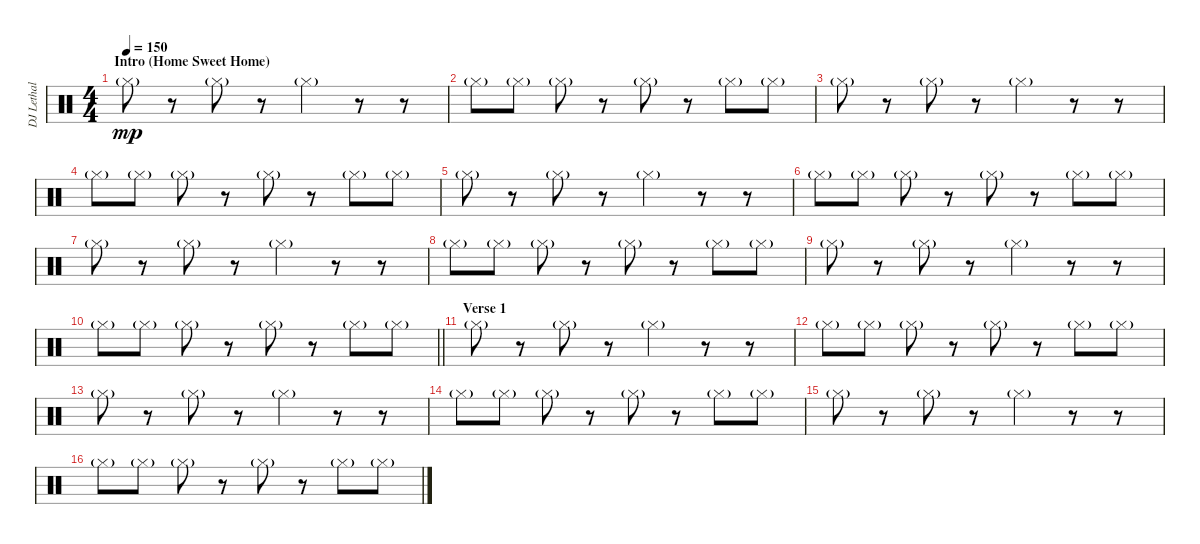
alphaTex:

\track ("DJ Lethal (Beats 2)" "DJ Lethal ") {instrument percussion}
\staff {score}
\articulation defaults
\ts (4 4)
\section ("" "Intro (Home Sweet Home)")
\tempo 150
\clef neutral
\ks c "Hi-Hat (closed)"{g}.8{dy mp}
r.8 "Hi-Hat (closed)"{g}.8 r.8 "Hi-Hat (closed)"{g}.4 r.8 r.8 |
"Hi-Hat (closed)"{g}.8 "Hi-Hat (closed)"{g}.8 "Hi-Hat (closed)"{g}.8 r.8 "Hi-Hat (closed)"{g}.8 r.8 "Hi-Hat (closed)"{g}.8 "Hi-Hat (closed)"{g}.8 |
"Hi-Hat (closed)"{g}.8 r.8 "Hi-Hat (closed)"{g}.8 r.8 "Hi-Hat (closed)"{g}.4 r.8 r.8 |
"Hi-Hat (closed)"{g}.8 "Hi-Hat (closed)"{g}.8 "Hi-Hat (closed)"{g}.8 r.8 "Hi-Hat (closed)"{g}.8 r.8 "Hi-Hat (closed)"{g}.8 "Hi-Hat (closed)"{g}.8 |
"Hi-Hat (closed)"{g}.8 r.8 "Hi-Hat (closed)"{g}.8 r.8 "Hi-Hat (closed)"{g}.4 r.8 r.8 |
"Hi-Hat (closed)"{g}.8 "Hi-Hat (closed)"{g}.8 "Hi-Hat (closed)"{g}.8 r.8 "Hi-Hat (closed)"{g}.8 r.8 "Hi-Hat (closed)"{g}.8 "Hi-Hat (closed)"{g}.8 |
"Hi-Hat (closed)"{g}.8 r.8 "Hi-Hat (closed)"{g}.8 r.8 "Hi-Hat (closed)"{g}.4 r.8 r.8 |
"Hi-Hat (closed)"{g}.8 "Hi-Hat (closed)"{g}.8 "Hi-Hat (closed)"{g}.8 r.8 "Hi-Hat (closed)"{g}.8 r.8 "Hi-Hat (closed)"{g}.8 "Hi-Hat (closed)"{g}.8 |
"Hi-Hat (closed)"{g}.8 r.8 "Hi-Hat (closed)"{g}.8 r.8 "Hi-Hat (closed)"{g}.4 r.8 r.8 |
\barLineRight lightlight "Hi-Hat (closed)"{g}.8 "Hi-Hat (closed)"{g}.8 "Hi-Hat (closed)"{g}.8
r.8 "Hi-Hat (closed)"{g}.8 r.8 "Hi-Hat (closed)"{g}.8 "Hi-Hat (closed)"{g}.8 |
\section ("" "Verse 1")
"Hi-Hat (closed)"{g}.8 r.8 "Hi-Hat (closed)"{g}.8 r.8 "Hi-Hat (closed)"{g}.4 r.8 r.8 |
"Hi-Hat (closed)"{g}.8 "Hi-Hat (closed)"{g}.8 "Hi-Hat (closed)"{g}.8 r.8 "Hi-Hat (closed)"{g}.8 r.8 "Hi-Hat (closed)"{g}.8 "Hi-Hat (closed)"{g}.8 |
"Hi-Hat (closed)"{g}.8 r.8 "Hi-Hat (closed)"{g}.8 r.8 "Hi-Hat (closed)"{g}.4 r.8 r.8 |
"Hi-Hat (closed)"{g}.8 "Hi-Hat (closed)"{g}.8 "Hi-Hat (closed)"{g}.8 r.8 "Hi-Hat (closed)"{g}.8 r.8 "Hi-Hat (closed)"{g}.8 "Hi-Hat (closed)"{g}.8 |
"Hi-Hat (closed)"{g}.8 r.8 "Hi-Hat (closed)"{g}.8 r.8 "Hi-Hat (closed)"{g}.4 r.8 r.8 |
"Hi-Hat (closed)"{g}.8 "Hi-Hat (closed)"{g}.8 "Hi-Hat (closed)"{g}.8 r.8 "Hi-Hat (closed)"{g}.8 r.8 "Hi-Hat (closed)"{g}.8 "Hi-Hat (closed)"{g}.8
